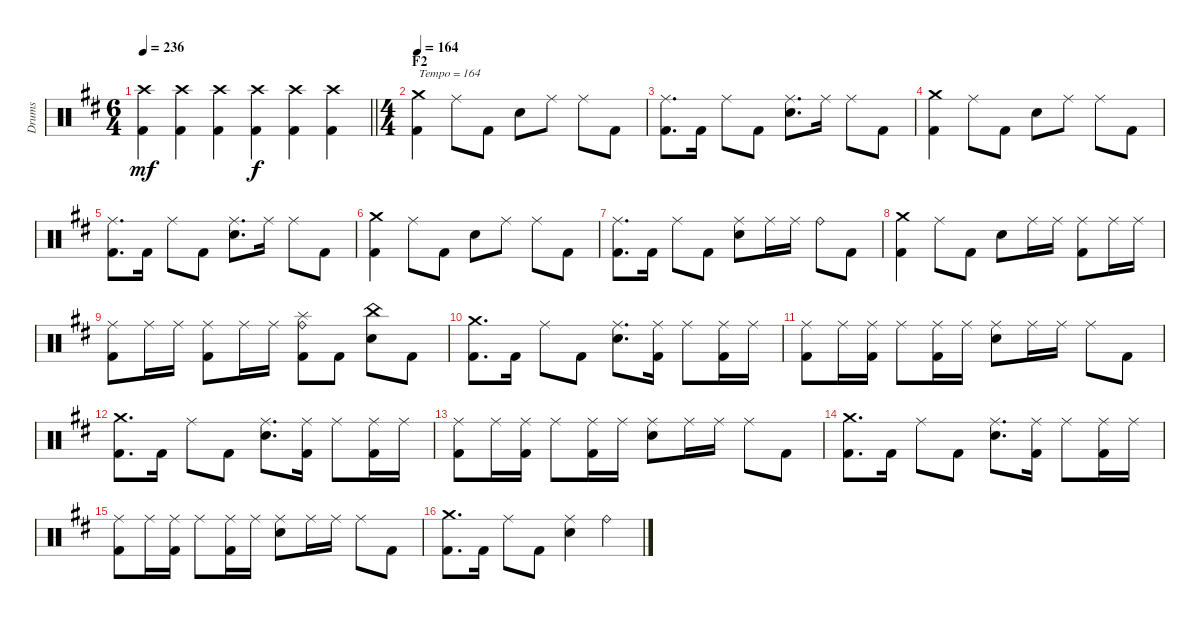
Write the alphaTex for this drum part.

\track ("Drums" "Drums") {instrument percussion}
\staff {score}
\articulation defaults
\ts (6 4)
\tempo 236
\clef neutral
\barLineRight lightlight
\ks d
("Crash high (hit)" "Kick (hit) 2").4{dy mf} ("Crash high (hit)" "Kick (hit) 2").4 ("Crash high (hit)" "Kick (hit) 2").4 ("Crash high (hit)" "Kick (hit) 2").4{dy f} ("Crash high (hit)" "Kick (hit) 2").4 ("Crash high (hit)" "Kick (hit) 2").4 |
\ts (4 4)
\section ("" "F2")
\tempo 164
("Crash medium (hit)" "Kick (hit) 2").4{txt "Tempo = 164"} "Ride (middle)".8 "Kick (hit) 2".8 "Snare (hit) 2".8 "Ride (middle)".8 "Ride (middle)".8 "Kick (hit) 2".8 |
("Ride (middle)" "Kick (hit) 2").8{d} "Kick (hit) 2".16 "Ride (middle)".8 "Kick (hit) 2".8 ("Ride (middle)" "Snare (hit) 2").8{d} "Ride (middle)".16 "Ride (middle)".8 "Kick (hit) 2".8 |
("Crash medium (hit)" "Kick (hit) 2").4 "Ride (middle)".8 "Kick (hit) 2".8 "Snare (hit) 2".8 "Ride (middle)".8 "Ride (middle)".8 "Kick (hit) 2".8 |
("Ride (middle)" "Kick (hit) 2").8{d} "Kick (hit) 2".16 "Ride (middle)".8 "Kick (hit) 2".8 ("Ride (middle)" "Snare (hit) 2").8{d} "Ride (middle)".16 "Ride (middle)".8 "Kick (hit) 2".8 |
("Crash medium (hit)" "Kick (hit) 2").4 "Ride (middle)".8 "Kick (hit) 2".8 "Snare (hit) 2".8 "Ride (middle)".8 "Ride (middle)".8 "Kick (hit) 2".8 |
("Ride (middle)" "Kick (hit) 2").8{d} "Kick (hit) 2".16 "Ride (middle)".8 "Kick (hit) 2".8 ("Ride (middle)" "Snare (hit) 2").8 "Ride (middle)".16 "Ride (middle)".16 "Ride (bell)".8 "Kick (hit) 2".8 |
("Crash medium (hit)" "Kick (hit) 2").4 "Ride (middle)".8 "Kick (hit) 2".8 "Snare (hit) 2".8 "Ride (middle)".16 "Ride (middle)".16 ("Ride (middle)" "Kick (hit) 2").8 "Ride (middle)".16 "Ride (middle)".16 |
("Ride (middle)" "Kick (hit) 2").8 "Ride (middle)".16 "Ride (middle)".16 ("Ride (middle)" "Kick (hit) 2").8 "Ride (middle)".16 "Ride (middle)".16 ("Ride (bell)" "Splash (hit)" "Kick (hit) 2").8 "Kick (hit) 2".8 ("China (hit)" "Snare (hit) 2").8 "Kick (hit) 2".8 |
("Crash medium (hit)" "Kick (hit) 2").8{d} "Kick (hit) 2".16 "Ride (middle)".8 "Kick (hit) 2".8 ("Ride (middle)" "Snare (hit) 2").8{d} ("Ride (middle)" "Kick (hit) 2").16 "Ride (middle)".8 ("Ride (middle)" "Kick (hit) 2").16 "Ride (middle)".16 |
("Ride (middle)" "Kick (hit) 2").8 "Ride (middle)".16 ("Ride (middle)" "Kick (hit) 2").16 "Ride (middle)".8 ("Ride (middle)" "Kick (hit) 2").16 "Ride (middle)".16 ("Ride (middle)" "Snare (hit) 2").8 "Ride (middle)".16 "Ride (middle)".16 "Ride (middle)".8 "Kick (hit) 2".8 |
("Crash medium (hit)" "Kick (hit) 2").8{d} "Kick (hit) 2".16 "Ride (middle)".8 "Kick (hit) 2".8 ("Ride (middle)" "Snare (hit) 2").8{d} ("Ride (middle)" "Kick (hit) 2").16 "Ride (middle)".8 ("Ride (middle)" "Kick (hit) 2").16 "Ride (middle)".16 |
("Ride (middle)" "Kick (hit) 2").8 "Ride (middle)".16 ("Ride (middle)" "Kick (hit) 2").16 "Ride (middle)".8 ("Ride (middle)" "Kick (hit) 2").16 "Ride (middle)".16 ("Ride (middle)" "Snare (hit) 2").8 "Ride (middle)".16 "Ride (middle)".16 "Ride (middle)".8 "Kick (hit) 2".8 |
("Crash medium (hit)" "Kick (hit) 2").8{d} "Kick (hit) 2".16 "Ride (middle)".8 "Kick (hit) 2".8 ("Ride (middle)" "Snare (hit) 2").8{d} ("Ride (middle)" "Kick (hit) 2").16 "Ride (middle)".8 ("Ride (middle)" "Kick (hit) 2").16 "Ride (middle)".16 |
("Ride (middle)" "Kick (hit) 2").8 "Ride (middle)".16 ("Ride (middle)" "Kick (hit) 2").16 "Ride (middle)".8 ("Ride (middle)" "Kick (hit) 2").16 "Ride (middle)".16 ("Ride (middle)" "Snare (hit) 2").8 "Ride (middle)".16 "Ride (middle)".16 "Ride (middle)".8 "Kick (hit) 2".8 |
("Crash medium (hit)" "Kick (hit) 2").8{d} "Kick (hit) 2".16 "Ride (middle)".8 "Kick (hit) 2".8 ("Ride (middle)" "Snare (hit) 2").4 "Ride (bell)".4
